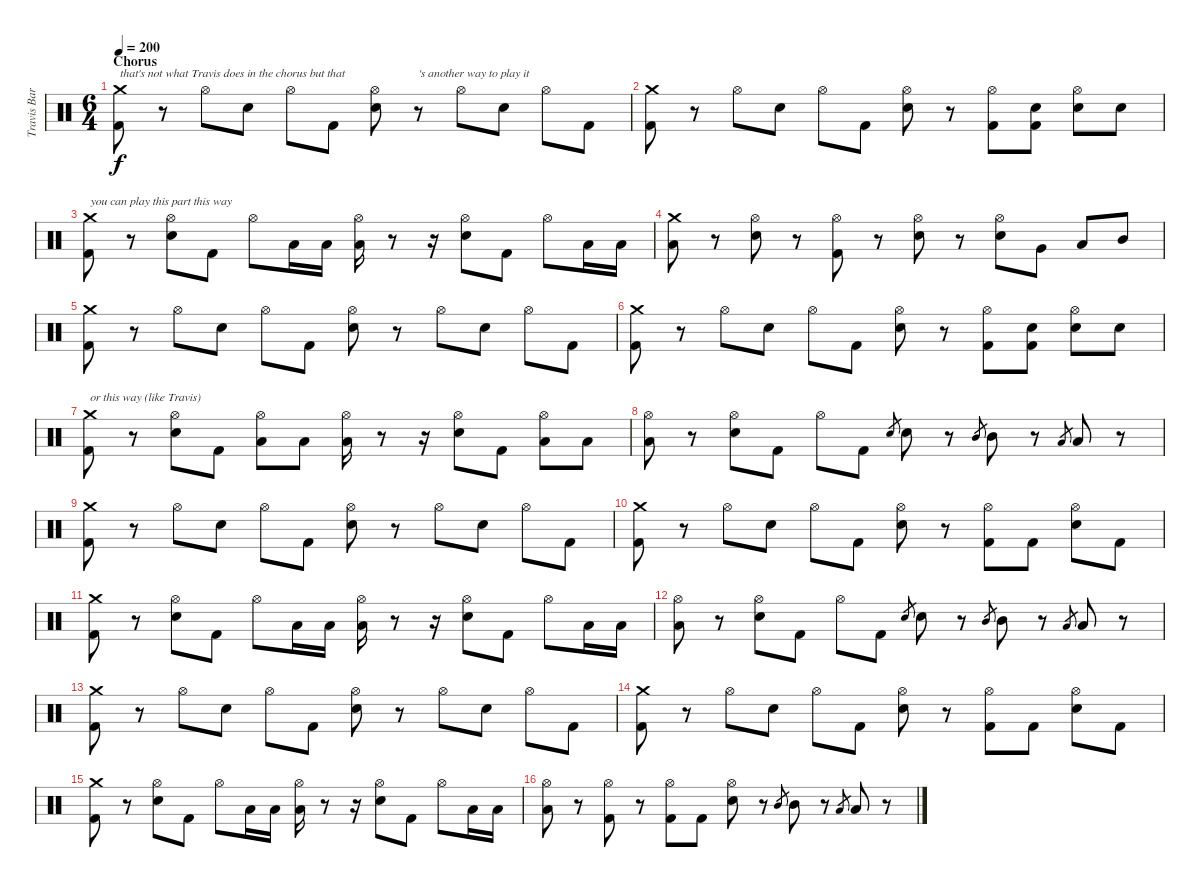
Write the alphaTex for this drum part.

\track ("Travis Barker - Drums" "Travis Bar") {instrument percussion}
\staff {score}
\articulation defaults
\ts (6 4)
\section ("" "Chorus")
\tempo 200
\clef neutral
\ks c
("Crash medium (hit)" "Kick (hit) 2").8{txt "that's not what Travis does in the chorus but that" dy f} r.8 "Hi-Hat (open)".8 "Electric Snare (hit)".8 "Hi-Hat (open)".8 "Kick (hit) 2".8 ("Hi-Hat (open)" "Electric Snare (hit)").8 r.8{txt "'s another way to play it"} "Hi-Hat (open)".8 "Electric Snare (hit)".8 "Hi-Hat (open)".8 "Kick (hit) 2".8 |
("Crash medium (hit)" "Kick (hit) 2").8 r.8 "Hi-Hat (open)".8 "Electric Snare (hit)".8 "Hi-Hat (open)".8 "Kick (hit) 2".8 ("Hi-Hat (open)" "Electric Snare (hit)").8 r.8 ("Hi-Hat (open)" "Kick (hit) 2").8 ("Electric Snare (hit)" "Kick (hit) 2").8 ("Hi-Hat (open)" "Electric Snare (hit)").8 "Electric Snare (hit)".8 |
("Crash medium (hit)" "Kick (hit) 2").8{txt "you can play this part this way"} r.8 ("Hi-Hat (open)" "Electric Snare (hit)").8 "Kick (hit) 2".8 "Hi-Hat (open)".8 "Low Tom (hit)".16 "Low Tom (hit)".16 ("Hi-Hat (open)" "Low Tom (hit)").16 r.8 r.16 ("Hi-Hat (open)" "Electric Snare (hit)").8 "Kick (hit) 2".8 "Hi-Hat (open)".8 "Low Tom (hit)".16 "Low Tom (hit)".16 |
("Crash medium (hit)" "Low Tom (hit)").8 r.8 ("Hi-Hat (open)" "Electric Snare (hit)").8 r.8 ("Hi-Hat (open)" "Kick (hit) 2").8 r.8 ("Hi-Hat (open)" "Electric Snare (hit)").8 r.8 ("Hi-Hat (open)" "Electric Snare (hit)").8 "Very Low Tom (hit)".8 "Low Tom (hit)".8 "Mid Tom (hit)".8 |
("Crash medium (hit)" "Kick (hit) 2").8 r.8 "Hi-Hat (open)".8 "Electric Snare (hit)".8 "Hi-Hat (open)".8 "Kick (hit) 2".8 ("Hi-Hat (open)" "Electric Snare (hit)").8 r.8 "Hi-Hat (open)".8 "Electric Snare (hit)".8 "Hi-Hat (open)".8 "Kick (hit) 2".8 |
("Crash medium (hit)" "Kick (hit) 2").8 r.8 "Hi-Hat (open)".8 "Electric Snare (hit)".8 "Hi-Hat (open)".8 "Kick (hit) 2".8 ("Hi-Hat (open)" "Electric Snare (hit)").8 r.8 ("Hi-Hat (open)" "Kick (hit) 2").8 ("Electric Snare (hit)" "Kick (hit) 2").8 ("Hi-Hat (open)" "Electric Snare (hit)").8 "Electric Snare (hit)".8 |
("Crash medium (hit)" "Kick (hit) 2").8{txt "or this way (like Travis)"} r.8 ("Hi-Hat (open)" "Electric Snare (hit)").8 "Kick (hit) 2".8 ("Hi-Hat (open)" "Low Tom (hit)").8 "Low Tom (hit)".8 ("Hi-Hat (open)" "Low Tom (hit)").16 r.8 r.16 ("Hi-Hat (open)" "Electric Snare (hit)").8 "Kick (hit) 2".8 ("Hi-Hat (open)" "Low Tom (hit)").8 "Low Tom (hit)".8 |
("Hi-Hat (open)" "Low Tom (hit)").8 r.8 ("Hi-Hat (open)" "Electric Snare (hit)").8 "Kick (hit) 2".8 "Hi-Hat (open)".8 "Kick (hit) 2".8 "Electric Snare (hit)".8{gr} "Electric Snare (hit)".8 r.8 "Mid Tom (hit)".8{gr} "Mid Tom (hit)".8 r.8 "Low Tom (hit)".8{gr} "Low Tom (hit)".8 r.8 |
("Crash medium (hit)" "Kick (hit) 2").8 r.8 "Hi-Hat (open)".8 "Electric Snare (hit)".8 "Hi-Hat (open)".8 "Kick (hit) 2".8 ("Hi-Hat (open)" "Electric Snare (hit)").8 r.8 "Hi-Hat (open)".8 "Electric Snare (hit)".8 "Hi-Hat (open)".8 "Kick (hit) 2".8 |
("Crash medium (hit)" "Kick (hit) 2").8 r.8 "Hi-Hat (open)".8 "Electric Snare (hit)".8 "Hi-Hat (open)".8 "Kick (hit) 2".8 ("Hi-Hat (open)" "Electric Snare (hit)").8 r.8 ("Hi-Hat (open)" "Kick (hit) 2").8 "Kick (hit) 2".8 ("Hi-Hat (open)" "Electric Snare (hit)").8 "Kick (hit) 2".8 |
("Crash medium (hit)" "Kick (hit) 2").8 r.8 ("Hi-Hat (open)" "Electric Snare (hit)").8 "Kick (hit) 2".8 "Hi-Hat (open)".8 "Low Tom (hit)".16 "Low Tom (hit)".16 ("Hi-Hat (open)" "Low Tom (hit)").16 r.8 r.16 ("Hi-Hat (open)" "Electric Snare (hit)").8 "Kick (hit) 2".8 "Hi-Hat (open)".8 "Low Tom (hit)".16 "Low Tom (hit)".16 |
("Hi-Hat (open)" "Low Tom (hit)").8 r.8 ("Hi-Hat (open)" "Electric Snare (hit)").8 "Kick (hit) 2".8 "Hi-Hat (open)".8 "Kick (hit) 2".8 "Electric Snare (hit)".8{gr} "Electric Snare (hit)".8 r.8 "Mid Tom (hit)".8{gr} "Mid Tom (hit)".8 r.8 "Low Tom (hit)".8{gr} "Low Tom (hit)".8 r.8 |
("Crash medium (hit)" "Kick (hit) 2").8 r.8 "Hi-Hat (open)".8 "Electric Snare (hit)".8 "Hi-Hat (open)".8 "Kick (hit) 2".8 ("Hi-Hat (open)" "Electric Snare (hit)").8 r.8 "Hi-Hat (open)".8 "Electric Snare (hit)".8 "Hi-Hat (open)".8 "Kick (hit) 2".8 |
("Crash medium (hit)" "Kick (hit) 2").8 r.8 "Hi-Hat (open)".8 "Electric Snare (hit)".8 "Hi-Hat (open)".8 "Kick (hit) 2".8 ("Hi-Hat (open)" "Electric Snare (hit)").8 r.8 ("Hi-Hat (open)" "Kick (hit) 2").8 "Kick (hit) 2".8 ("Hi-Hat (open)" "Electric Snare (hit)").8 "Kick (hit) 2".8 |
("Crash medium (hit)" "Kick (hit) 2").8 r.8 ("Hi-Hat (open)" "Electric Snare (hit)").8 "Kick (hit) 2".8 "Hi-Hat (open)".8 "Low Tom (hit)".16 "Low Tom (hit)".16 ("Hi-Hat (open)" "Low Tom (hit)").16 r.8 r.16 ("Hi-Hat (open)" "Electric Snare (hit)").8 "Kick (hit) 2".8 "Hi-Hat (open)".8 "Low Tom (hit)".16 "Low Tom (hit)".16 |
("Hi-Hat (open)" "Low Tom (hit)").8 r.8 ("Hi-Hat (open)" "Kick (hit) 2").8 r.8 ("Hi-Hat (open)" "Kick (hit) 2").8 "Kick (hit) 2".8 ("Hi-Hat (open)" "Electric Snare (hit)").8 r.8 "Mid Tom (hit)".8{gr} "Mid Tom (hit)".8 r.8 "Low Tom (hit)".8{gr} "Low Tom (hit)".8 r.8
